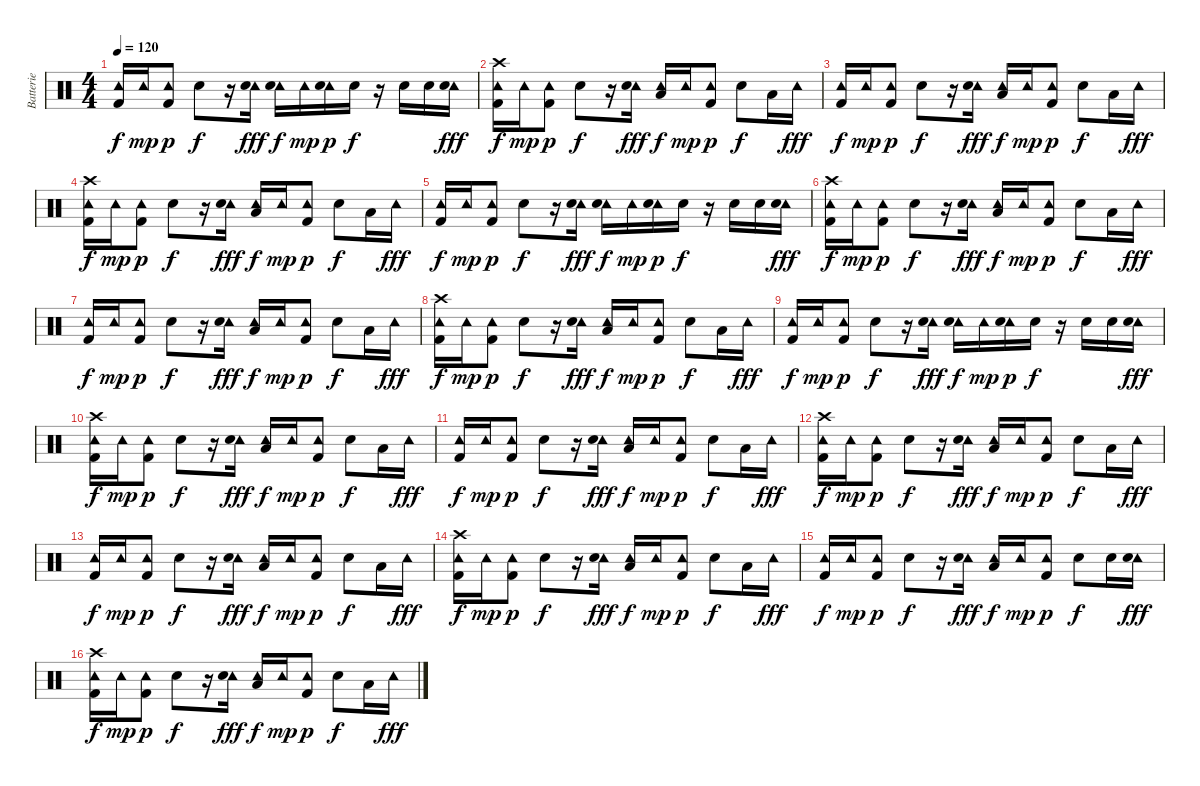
\track ("Batterie" "Batterie") {instrument percussion}
\staff {score}
\articulation defaults
\ts (4 4)
\tempo 120
\clef neutral
\ks c
("Tambourine (hit)" "Kick (hit) 2").16{dy f} "Tambourine (hit)".16{dy mp} ("Tambourine (hit)" "Kick (hit) 2").8{dy p} "Electric Snare (hit)".8{dy f} r.16 ("Tambourine (hit)" "Electric Snare (hit)").16{dy fff} ("Tambourine (hit)" "Electric Snare (hit)").16{dy f} "Tambourine (hit)".16{dy mp} ("Tambourine (hit)" "Electric Snare (hit)").16{dy p} "Electric Snare (hit)".16{dy f} r.16 "Electric Snare (hit)".16 "Electric Snare (hit)".16 ("Tambourine (hit)" "Electric Snare (hit)").16{dy fff} |
("Tambourine (hit)" "Kick (hit) 2" "Crash high (hit)").16{dy f} "Tambourine (hit)".16{dy mp} ("Tambourine (hit)" "Kick (hit) 2").8{dy p} "Electric Snare (hit)".8{dy f} r.16 ("Tambourine (hit)" "Electric Snare (hit)").16{dy fff} ("Tambourine (hit)" "Low Tom (hit)").16{dy f} "Tambourine (hit)".16{dy mp} ("Tambourine (hit)" "Kick (hit) 2").8{dy p} "Electric Snare (hit)".8{dy f} "Low Tom (hit)".16 "Tambourine (hit)".16{dy fff} |
("Tambourine (hit)" "Kick (hit) 2").16{dy f} "Tambourine (hit)".16{dy mp} ("Tambourine (hit)" "Kick (hit) 2").8{dy p} "Electric Snare (hit)".8{dy f} r.16 ("Tambourine (hit)" "Electric Snare (hit)").16{dy fff} ("Tambourine (hit)" "Low Tom (hit)").16{dy f} "Tambourine (hit)".16{dy mp} ("Tambourine (hit)" "Kick (hit) 2").8{dy p} "Electric Snare (hit)".8{dy f} "Low Tom (hit)".16 "Tambourine (hit)".16{dy fff} |
("Tambourine (hit)" "Kick (hit) 2" "Crash high (hit)").16{dy f} "Tambourine (hit)".16{dy mp} ("Tambourine (hit)" "Kick (hit) 2").8{dy p} "Electric Snare (hit)".8{dy f} r.16 ("Tambourine (hit)" "Electric Snare (hit)").16{dy fff} ("Tambourine (hit)" "Low Tom (hit)").16{dy f} "Tambourine (hit)".16{dy mp} ("Tambourine (hit)" "Kick (hit) 2").8{dy p} "Electric Snare (hit)".8{dy f} "Low Tom (hit)".16 "Tambourine (hit)".16{dy fff} |
("Tambourine (hit)" "Kick (hit) 2").16{dy f} "Tambourine (hit)".16{dy mp} ("Tambourine (hit)" "Kick (hit) 2").8{dy p} "Electric Snare (hit)".8{dy f} r.16 ("Tambourine (hit)" "Electric Snare (hit)").16{dy fff} ("Tambourine (hit)" "Electric Snare (hit)").16{dy f} "Tambourine (hit)".16{dy mp} ("Tambourine (hit)" "Electric Snare (hit)").16{dy p} "Electric Snare (hit)".16{dy f} r.16 "Electric Snare (hit)".16 "Electric Snare (hit)".16 ("Tambourine (hit)" "Electric Snare (hit)").16{dy fff} |
("Tambourine (hit)" "Kick (hit) 2" "Crash high (hit)").16{dy f} "Tambourine (hit)".16{dy mp} ("Tambourine (hit)" "Kick (hit) 2").8{dy p} "Electric Snare (hit)".8{dy f} r.16 ("Tambourine (hit)" "Electric Snare (hit)").16{dy fff} ("Tambourine (hit)" "Low Tom (hit)").16{dy f} "Tambourine (hit)".16{dy mp} ("Tambourine (hit)" "Kick (hit) 2").8{dy p} "Electric Snare (hit)".8{dy f} "Low Tom (hit)".16 "Tambourine (hit)".16{dy fff} |
("Tambourine (hit)" "Kick (hit) 2").16{dy f} "Tambourine (hit)".16{dy mp} ("Tambourine (hit)" "Kick (hit) 2").8{dy p} "Electric Snare (hit)".8{dy f} r.16 ("Tambourine (hit)" "Electric Snare (hit)").16{dy fff} ("Tambourine (hit)" "Low Tom (hit)").16{dy f} "Tambourine (hit)".16{dy mp} ("Tambourine (hit)" "Kick (hit) 2").8{dy p} "Electric Snare (hit)".8{dy f} "Low Tom (hit)".16 "Tambourine (hit)".16{dy fff} |
("Tambourine (hit)" "Kick (hit) 2" "Crash high (hit)").16{dy f} "Tambourine (hit)".16{dy mp} ("Tambourine (hit)" "Kick (hit) 2").8{dy p} "Electric Snare (hit)".8{dy f} r.16 ("Tambourine (hit)" "Electric Snare (hit)").16{dy fff} ("Tambourine (hit)" "Low Tom (hit)").16{dy f} "Tambourine (hit)".16{dy mp} ("Tambourine (hit)" "Kick (hit) 2").8{dy p} "Electric Snare (hit)".8{dy f} "Low Tom (hit)".16 "Tambourine (hit)".16{dy fff} |
("Tambourine (hit)" "Kick (hit) 2").16{dy f} "Tambourine (hit)".16{dy mp} ("Tambourine (hit)" "Kick (hit) 2").8{dy p} "Electric Snare (hit)".8{dy f} r.16 ("Tambourine (hit)" "Electric Snare (hit)").16{dy fff} ("Tambourine (hit)" "Electric Snare (hit)").16{dy f} "Tambourine (hit)".16{dy mp} ("Tambourine (hit)" "Electric Snare (hit)").16{dy p} "Electric Snare (hit)".16{dy f} r.16 "Electric Snare (hit)".16 "Electric Snare (hit)".16 ("Tambourine (hit)" "Electric Snare (hit)").16{dy fff} |
("Tambourine (hit)" "Kick (hit) 2" "Crash high (hit)").16{dy f} "Tambourine (hit)".16{dy mp} ("Tambourine (hit)" "Kick (hit) 2").8{dy p} "Electric Snare (hit)".8{dy f} r.16 ("Tambourine (hit)" "Electric Snare (hit)").16{dy fff} ("Tambourine (hit)" "Low Tom (hit)").16{dy f} "Tambourine (hit)".16{dy mp} ("Tambourine (hit)" "Kick (hit) 2").8{dy p} "Electric Snare (hit)".8{dy f} "Low Tom (hit)".16 "Tambourine (hit)".16{dy fff} |
("Tambourine (hit)" "Kick (hit) 2").16{dy f} "Tambourine (hit)".16{dy mp} ("Tambourine (hit)" "Kick (hit) 2").8{dy p} "Electric Snare (hit)".8{dy f} r.16 ("Tambourine (hit)" "Electric Snare (hit)").16{dy fff} ("Tambourine (hit)" "Low Tom (hit)").16{dy f} "Tambourine (hit)".16{dy mp} ("Tambourine (hit)" "Kick (hit) 2").8{dy p} "Electric Snare (hit)".8{dy f} "Low Tom (hit)".16 "Tambourine (hit)".16{dy fff} |
("Tambourine (hit)" "Kick (hit) 2" "Crash high (hit)").16{dy f} "Tambourine (hit)".16{dy mp} ("Tambourine (hit)" "Kick (hit) 2").8{dy p} "Electric Snare (hit)".8{dy f} r.16 ("Tambourine (hit)" "Electric Snare (hit)").16{dy fff} ("Tambourine (hit)" "Low Tom (hit)").16{dy f} "Tambourine (hit)".16{dy mp} ("Tambourine (hit)" "Kick (hit) 2").8{dy p} "Electric Snare (hit)".8{dy f} "Low Tom (hit)".16 "Tambourine (hit)".16{dy fff} |
("Tambourine (hit)" "Kick (hit) 2").16{dy f} "Tambourine (hit)".16{dy mp} ("Tambourine (hit)" "Kick (hit) 2").8{dy p} "Electric Snare (hit)".8{dy f} r.16 ("Tambourine (hit)" "Electric Snare (hit)").16{dy fff} ("Tambourine (hit)" "Low Tom (hit)").16{dy f} "Tambourine (hit)".16{dy mp} ("Tambourine (hit)" "Kick (hit) 2").8{dy p} "Electric Snare (hit)".8{dy f} "Low Tom (hit)".16 "Tambourine (hit)".16{dy fff} |
("Tambourine (hit)" "Kick (hit) 2" "Crash high (hit)").16{dy f} "Tambourine (hit)".16{dy mp} ("Tambourine (hit)" "Kick (hit) 2").8{dy p} "Electric Snare (hit)".8{dy f} r.16 ("Tambourine (hit)" "Electric Snare (hit)").16{dy fff} ("Tambourine (hit)" "Low Tom (hit)").16{dy f} "Tambourine (hit)".16{dy mp} ("Tambourine (hit)" "Kick (hit) 2").8{dy p} "Electric Snare (hit)".8{dy f} "Low Tom (hit)".16 "Tambourine (hit)".16{dy fff} |
("Tambourine (hit)" "Kick (hit) 2").16{dy f} "Tambourine (hit)".16{dy mp} ("Tambourine (hit)" "Kick (hit) 2").8{dy p} "Electric Snare (hit)".8{dy f} r.16 ("Tambourine (hit)" "Electric Snare (hit)").16{dy fff} ("Tambourine (hit)" "Low Tom (hit)").16{dy f} "Tambourine (hit)".16{dy mp} ("Tambourine (hit)" "Kick (hit) 2").8{dy p} "Electric Snare (hit)".8{dy f} "Electric Snare (hit)".16 ("Tambourine (hit)" "Electric Snare (hit)").16{dy fff} |
("Tambourine (hit)" "Kick (hit) 2" "Crash high (hit)").16{dy f} "Tambourine (hit)".16{dy mp} ("Tambourine (hit)" "Kick (hit) 2").8{dy p} "Electric Snare (hit)".8{dy f} r.16 ("Tambourine (hit)" "Electric Snare (hit)").16{dy fff} ("Tambourine (hit)" "Low Tom (hit)").16{dy f} "Tambourine (hit)".16{dy mp} ("Tambourine (hit)" "Kick (hit) 2").8{dy p} "Electric Snare (hit)".8{dy f} "Low Tom (hit)".16 "Tambourine (hit)".16{dy fff}
